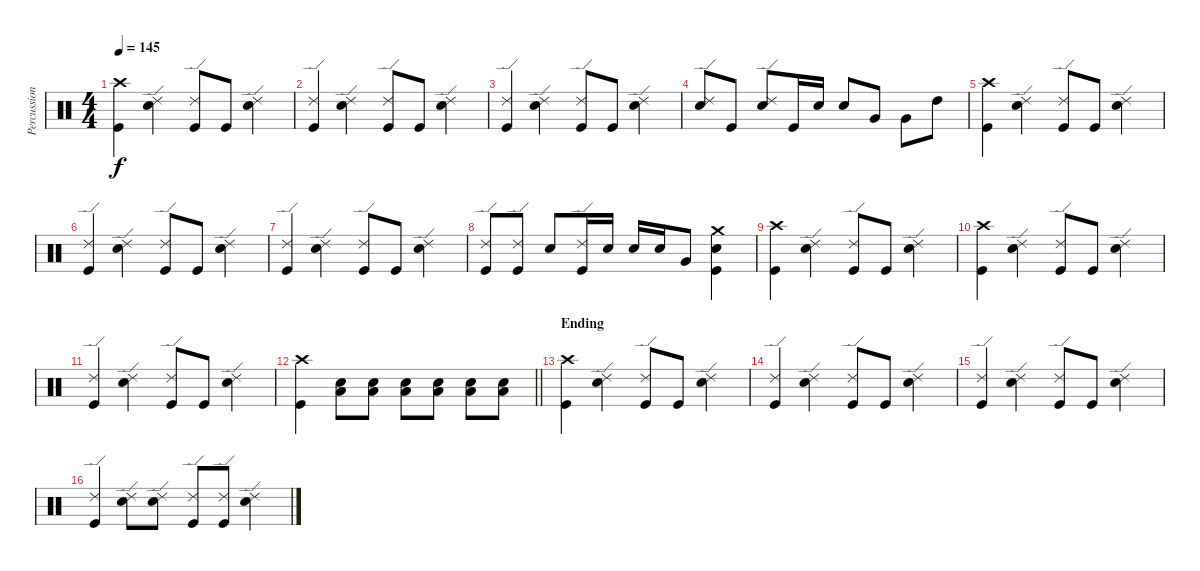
\track ("Percussion" "Percussion") {instrument percussion}
\staff {score}
\articulation defaults
\ts (4 4)
\tempo 145
\clef neutral
\ks c
("Kick (hit)" "Crash high (hit)").4{dy f} ("Ride (edge) 2" "Snare (hit) 2").4 ("Kick (hit)" "Ride (edge) 2").8 "Kick (hit)".8 ("Ride (edge) 2" "Snare (hit) 2").4 |
("Kick (hit)" "Ride (edge) 2").4 ("Ride (edge) 2" "Snare (hit) 2").4 ("Kick (hit)" "Ride (edge) 2").8 "Kick (hit)".8 ("Ride (edge) 2" "Snare (hit) 2").4 |
("Kick (hit)" "Ride (edge) 2").4 ("Ride (edge) 2" "Snare (hit) 2").4 ("Kick (hit)" "Ride (edge) 2").8 "Kick (hit)".8 ("Ride (edge) 2" "Snare (hit) 2").4 |
("Ride (edge) 2" "Snare (hit) 2").8 "Kick (hit)".8 ("Ride (edge) 2" "Snare (hit) 2").8 "Kick (hit)".16 "Snare (hit) 2".16 "Snare (hit) 2".8 "Very Low Tom (hit)".8 "Very Low Tom (hit)".8 "High Tom (hit)".8 |
("Kick (hit)" "Crash high (hit)").4 ("Ride (edge) 2" "Snare (hit) 2").4 ("Kick (hit)" "Ride (edge) 2").8 "Kick (hit)".8 ("Ride (edge) 2" "Snare (hit) 2").4 |
("Kick (hit)" "Ride (edge) 2").4 ("Ride (edge) 2" "Snare (hit) 2").4 ("Kick (hit)" "Ride (edge) 2").8 "Kick (hit)".8 ("Ride (edge) 2" "Snare (hit) 2").4 |
("Kick (hit)" "Ride (edge) 2").4 ("Ride (edge) 2" "Snare (hit) 2").4 ("Kick (hit)" "Ride (edge) 2").8 "Kick (hit)".8 ("Ride (edge) 2" "Snare (hit) 2").4 |
("Kick (hit)" "Ride (edge) 2").8 ("Kick (hit)" "Ride (edge) 2").8 "Snare (hit) 2".8 ("Kick (hit)" "Ride (edge) 2").16 "Snare (hit) 2".16 "Snare (hit) 2".16 "Snare (hit) 2".16 "Very Low Tom (hit)".8 ("Kick (hit)" "Crash medium (hit)" "Snare (hit) 2").4 |
("Kick (hit)" "Crash high (hit)").4 ("Ride (edge) 2" "Snare (hit) 2").4 ("Kick (hit)" "Ride (edge) 2").8 "Kick (hit)".8 ("Ride (edge) 2" "Snare (hit) 2").4 |
("Kick (hit)" "Crash high (hit)").4 ("Ride (edge) 2" "Snare (hit) 2").4 ("Kick (hit)" "Ride (edge) 2").8 "Kick (hit)".8 ("Ride (edge) 2" "Snare (hit) 2").4 |
("Kick (hit)" "Ride (edge) 2").4 ("Ride (edge) 2" "Snare (hit) 2").4 ("Kick (hit)" "Ride (edge) 2").8 "Kick (hit)".8 ("Ride (edge) 2" "Snare (hit) 2").4 |
\barLineRight lightlight
("Kick (hit)" "Crash high (hit)").4 ("Low Tom (hit)" "Snare (hit) 2").8 ("Low Tom (hit)" "Snare (hit) 2").8 ("Low Tom (hit)" "Snare (hit) 2").8 ("Low Tom (hit)" "Snare (hit) 2").8 ("Low Tom (hit)" "Snare (hit) 2").8 ("Low Tom (hit)" "Snare (hit) 2").8 |
\section ("" "Ending")
("Kick (hit)" "Crash high (hit)").4 ("Ride (edge) 2" "Snare (hit) 2").4 ("Kick (hit)" "Ride (edge) 2").8 "Kick (hit)".8 ("Ride (edge) 2" "Snare (hit) 2").4 |
("Kick (hit)" "Ride (edge) 2").4 ("Ride (edge) 2" "Snare (hit) 2").4 ("Kick (hit)" "Ride (edge) 2").8 "Kick (hit)".8 ("Ride (edge) 2" "Snare (hit) 2").4 |
("Kick (hit)" "Ride (edge) 2").4 ("Ride (edge) 2" "Snare (hit) 2").4 ("Kick (hit)" "Ride (edge) 2").8 "Kick (hit)".8 ("Ride (edge) 2" "Snare (hit) 2").4 |
("Kick (hit)" "Ride (edge) 2").4 ("Ride (edge) 2" "Snare (hit) 2").8 ("Ride (edge) 2" "Snare (hit) 2").8 ("Kick (hit)" "Ride (edge) 2").8 ("Kick (hit)" "Ride (edge) 2").8 ("Ride (edge) 2" "Snare (hit) 2").4
